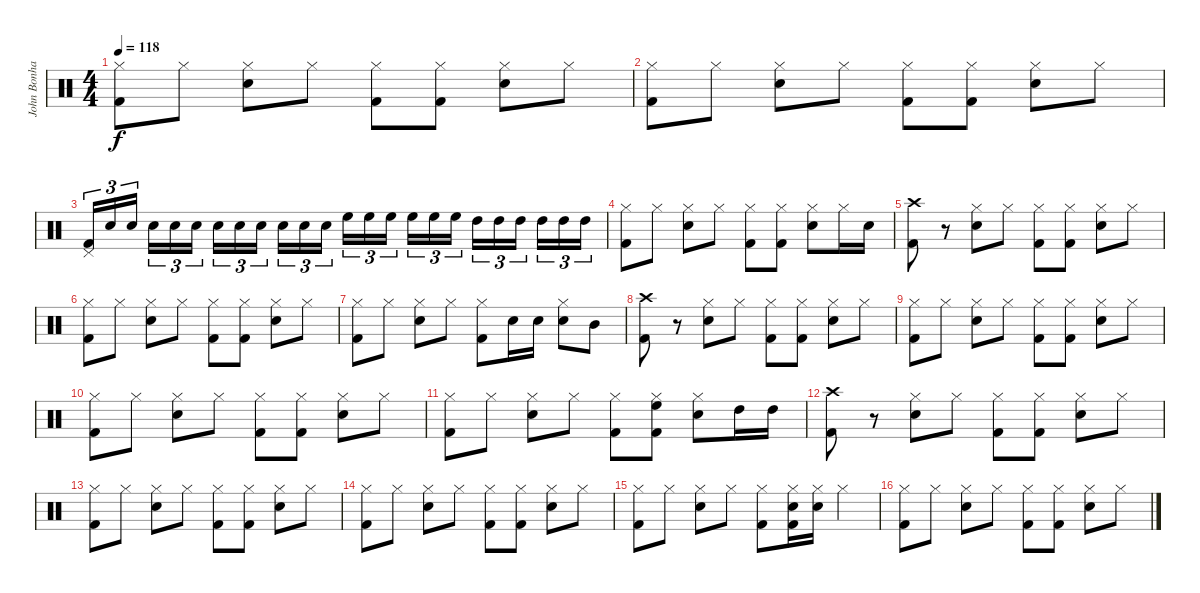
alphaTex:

\track ("John Bonham (Bateria)" "John Bonha") {instrument percussion}
\staff {score}
\articulation defaults
\ts (4 4)
\tempo 118
\clef neutral
\ks c
("Hi-Hat (closed)" "Kick (hit) 2").8{dy f} "Hi-Hat (closed)".8 ("Snare (hit) 2" "Hi-Hat (closed)").8 "Hi-Hat (closed)".8 ("Kick (hit) 2" "Hi-Hat (closed)").8 ("Kick (hit) 2" "Hi-Hat (closed)").8 ("Snare (hit) 2" "Hi-Hat (closed)").8 "Hi-Hat (closed)".8 |
("Hi-Hat (closed)" "Kick (hit) 2").8 "Hi-Hat (closed)".8 ("Snare (hit) 2" "Hi-Hat (closed)").8 "Hi-Hat (closed)".8 ("Kick (hit) 2" "Hi-Hat (closed)").8 ("Kick (hit) 2" "Hi-Hat (closed)").8 ("Snare (hit) 2" "Hi-Hat (closed)").8 "Hi-Hat (closed)".8 |
("Pedal Hi-Hat (hit)" "Kick (hit) 2").16{tu (3 2)} "Snare (hit) 2".16{tu (3 2)} "Snare (hit) 2".16{tu (3 2) beam splitsecondary} "Snare (hit) 2".16{tu (3 2)} "Snare (hit) 2".16{tu (3 2)} "Snare (hit) 2".16{tu (3 2)} "Snare (hit) 2".16{tu (3 2)} "Snare (hit) 2".16{tu (3 2)} "Snare (hit) 2".16{tu (3 2) beam splitsecondary} "Snare (hit) 2".16{tu (3 2)} "Snare (hit) 2".16{tu (3 2)} "Snare (hit) 2".16{tu (3 2)} "High Floor Tom (hit)".16{tu (3 2)} "High Floor Tom (hit)".16{tu (3 2)} "High Floor Tom (hit)".16{tu (3 2) beam splitsecondary} "High Floor Tom (hit)".16{tu (3 2)} "High Floor Tom (hit)".16{tu (3 2)} "High Floor Tom (hit)".16{tu (3 2)} "High Tom (hit)".16{tu (3 2)} "High Tom (hit)".16{tu (3 2)} "High Tom (hit)".16{tu (3 2) beam splitsecondary} "High Tom (hit)".16{tu (3 2)} "High Tom (hit)".16{tu (3 2)} "High Tom (hit)".16{tu (3 2)} |
("Hi-Hat (closed)" "Kick (hit) 2").8 "Hi-Hat (closed)".8 ("Hi-Hat (closed)" "Snare (hit) 2").8 "Hi-Hat (closed)".8 ("Hi-Hat (closed)" "Kick (hit) 2").8 ("Hi-Hat (closed)" "Kick (hit) 2").8 ("Hi-Hat (closed)" "Snare (hit) 2").8 "Hi-Hat (closed)".16 "Snare (hit) 2".16 |
("Crash high (hit)" "Kick (hit) 2").8 r.8 ("Snare (hit) 2" "Hi-Hat (closed)").8 "Hi-Hat (closed)".8 ("Hi-Hat (closed)" "Kick (hit) 2").8 ("Hi-Hat (closed)" "Kick (hit) 2").8 ("Hi-Hat (closed)" "Snare (hit) 2").8 "Hi-Hat (closed)".8 |
("Hi-Hat (closed)" "Kick (hit) 2").8 "Hi-Hat (closed)".8 ("Snare (hit) 2" "Hi-Hat (closed)").8 "Hi-Hat (closed)".8 ("Kick (hit) 2" "Hi-Hat (closed)").8 ("Kick (hit) 2" "Hi-Hat (closed)").8 ("Snare (hit) 2" "Hi-Hat (closed)").8 "Hi-Hat (closed)".8 |
("Hi-Hat (closed)" "Kick (hit) 2").8 "Hi-Hat (closed)".8 ("Hi-Hat (closed)" "Snare (hit) 2").8 "Hi-Hat (closed)".8 ("Hi-Hat (closed)" "Kick (hit) 2").8 "Snare (hit) 2".16 "Snare (hit) 2".16 ("Hi-Hat (closed)" "Snare (hit) 2").8 "Mid Tom (hit)".8 |
("Crash high (hit)" "Kick (hit) 2").8 r.8 ("Snare (hit) 2" "Hi-Hat (closed)").8 "Hi-Hat (closed)".8 ("Hi-Hat (closed)" "Kick (hit) 2").8 ("Hi-Hat (closed)" "Kick (hit) 2").8 ("Hi-Hat (closed)" "Snare (hit) 2").8 "Hi-Hat (closed)".8 |
("Hi-Hat (closed)" "Kick (hit) 2").8 "Hi-Hat (closed)".8 ("Snare (hit) 2" "Hi-Hat (closed)").8 "Hi-Hat (closed)".8 ("Kick (hit) 2" "Hi-Hat (closed)").8 ("Kick (hit) 2" "Hi-Hat (closed)").8 ("Snare (hit) 2" "Hi-Hat (closed)").8 "Hi-Hat (closed)".8 |
("Hi-Hat (closed)" "Kick (hit) 2").8 "Hi-Hat (closed)".8 ("Snare (hit) 2" "Hi-Hat (closed)").8 "Hi-Hat (closed)".8 ("Kick (hit) 2" "Hi-Hat (closed)").8 ("Kick (hit) 2" "Hi-Hat (closed)").8 ("Snare (hit) 2" "Hi-Hat (closed)").8 "Hi-Hat (closed)".8 |
("Kick (hit) 2" "Hi-Hat (closed)").8 "Hi-Hat (closed)".8 ("Snare (hit) 2" "Hi-Hat (closed)").8 "Hi-Hat (closed)".8 ("Kick (hit) 2" "Hi-Hat (closed)").8 ("High Floor Tom (hit)" "Kick (hit) 2" "Hi-Hat (closed)").8 ("Snare (hit) 2" "Hi-Hat (closed)").8 "High Tom (hit)".16 "High Tom (hit)".16 |
("Crash high (hit)" "Kick (hit) 2").8 r.8 ("Snare (hit) 2" "Hi-Hat (closed)").8 "Hi-Hat (closed)".8 ("Hi-Hat (closed)" "Kick (hit) 2").8 ("Hi-Hat (closed)" "Kick (hit) 2").8 ("Hi-Hat (closed)" "Snare (hit) 2").8 "Hi-Hat (closed)".8 |
("Hi-Hat (closed)" "Kick (hit) 2").8 "Hi-Hat (closed)".8 ("Snare (hit) 2" "Hi-Hat (closed)").8 "Hi-Hat (closed)".8 ("Kick (hit) 2" "Hi-Hat (closed)").8 ("Kick (hit) 2" "Hi-Hat (closed)").8 ("Snare (hit) 2" "Hi-Hat (closed)").8 "Hi-Hat (closed)".8 |
("Hi-Hat (closed)" "Kick (hit) 2").8 "Hi-Hat (closed)".8 ("Snare (hit) 2" "Hi-Hat (closed)").8 "Hi-Hat (closed)".8 ("Kick (hit) 2" "Hi-Hat (closed)").8 ("Kick (hit) 2" "Hi-Hat (closed)").8 ("Snare (hit) 2" "Hi-Hat (closed)").8 "Hi-Hat (closed)".8 |
("Hi-Hat (closed)" "Kick (hit) 2").8 "Hi-Hat (closed)".8 ("Snare (hit) 2" "Hi-Hat (closed)").8 "Hi-Hat (closed)".8 ("Kick (hit) 2" "Hi-Hat (closed)").8 ("Kick (hit) 2" "Snare (hit) 2" "Hi-Hat (closed)").16 ("Snare (hit) 2" "Hi-Hat (closed)").16 "Hi-Hat (closed)".4 |
("Hi-Hat (closed)" "Kick (hit) 2").8 "Hi-Hat (closed)".8 ("Snare (hit) 2" "Hi-Hat (closed)").8 "Hi-Hat (closed)".8 ("Kick (hit) 2" "Hi-Hat (closed)").8 ("Kick (hit) 2" "Hi-Hat (closed)").8 ("Snare (hit) 2" "Hi-Hat (closed)").8 "Hi-Hat (closed)".8
